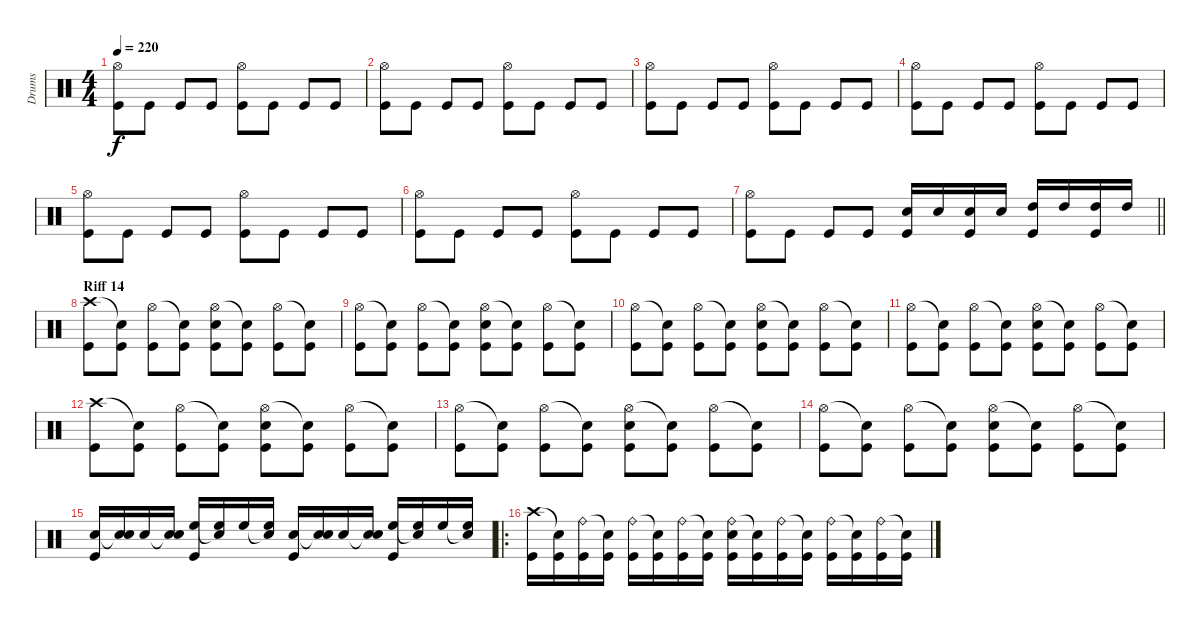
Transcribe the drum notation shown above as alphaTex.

\track ("Drums" "Drums") {instrument percussion}
\staff {score}
\articulation defaults
\ts (4 4)
\tempo 220
\clef neutral
\ks c
("Hi-Hat (open)" "Kick (hit)").8{dy f} "Kick (hit)".8 "Kick (hit)".8 "Kick (hit)".8 ("Hi-Hat (open)" "Kick (hit)").8 "Kick (hit)".8 "Kick (hit)".8 "Kick (hit)".8 |
("Hi-Hat (open)" "Kick (hit)").8 "Kick (hit)".8 "Kick (hit)".8 "Kick (hit)".8 ("Hi-Hat (open)" "Kick (hit)").8 "Kick (hit)".8 "Kick (hit)".8 "Kick (hit)".8 |
("Hi-Hat (open)" "Kick (hit)").8 "Kick (hit)".8 "Kick (hit)".8 "Kick (hit)".8 ("Hi-Hat (open)" "Kick (hit)").8 "Kick (hit)".8 "Kick (hit)".8 "Kick (hit)".8 |
("Hi-Hat (open)" "Kick (hit)").8 "Kick (hit)".8 "Kick (hit)".8 "Kick (hit)".8 ("Hi-Hat (open)" "Kick (hit)").8 "Kick (hit)".8 "Kick (hit)".8 "Kick (hit)".8 |
("Hi-Hat (open)" "Kick (hit)").8 "Kick (hit)".8 "Kick (hit)".8 "Kick (hit)".8 ("Hi-Hat (open)" "Kick (hit)").8 "Kick (hit)".8 "Kick (hit)".8 "Kick (hit)".8 |
("Hi-Hat (open)" "Kick (hit)").8 "Kick (hit)".8 "Kick (hit)".8 "Kick (hit)".8 ("Hi-Hat (open)" "Kick (hit)").8 "Kick (hit)".8 "Kick (hit)".8 "Kick (hit)".8 |
\barLineRight lightlight
("Hi-Hat (open)" "Kick (hit)").8 "Kick (hit)".8 "Kick (hit)".8 "Kick (hit)".8 ("Electric Snare (hit)" "Kick (hit)").16 "Electric Snare (hit)".16 ("Electric Snare (hit)" "Kick (hit)").16 "Electric Snare (hit)".16 ("High Tom (hit)" "Kick (hit)").16 "High Tom (hit)".16 ("High Tom (hit)" "Kick (hit)").16 "High Tom (hit)".16 |
\section ("" "Riff 14 ")
("Crash high (hit)" "Kick (hit)").8 ("Snare (hit)"{t} "Kick (hit)").8 ("Hi-Hat (open)" "Kick (hit)").8 ("Snare (hit)"{t} "Kick (hit)").8 ("Hi-Hat (open)" "Electric Snare (hit)" "Kick (hit)").8 ("Snare (hit)"{t} "Kick (hit)").8 ("Hi-Hat (open)" "Kick (hit)").8 ("Snare (hit)"{t} "Kick (hit)").8 |
("Hi-Hat (open)" "Kick (hit)").8 ("Snare (hit)"{t} "Kick (hit)").8 ("Hi-Hat (open)" "Kick (hit)").8 ("Snare (hit)"{t} "Kick (hit)").8 ("Hi-Hat (open)" "Electric Snare (hit)" "Kick (hit)").8 ("Snare (hit)"{t} "Kick (hit)").8 ("Hi-Hat (open)" "Kick (hit)").8 ("Snare (hit)"{t} "Kick (hit)").8 |
("Hi-Hat (open)" "Kick (hit)").8 ("Snare (hit)"{t} "Kick (hit)").8 ("Hi-Hat (open)" "Kick (hit)").8 ("Snare (hit)"{t} "Kick (hit)").8 ("Hi-Hat (open)" "Electric Snare (hit)" "Kick (hit)").8 ("Snare (hit)"{t} "Kick (hit)").8 ("Hi-Hat (open)" "Kick (hit)").8 ("Snare (hit)"{t} "Kick (hit)").8 |
("Hi-Hat (open)" "Kick (hit)").8 ("Snare (hit)"{t} "Kick (hit)").8 ("Hi-Hat (open)" "Kick (hit)").8 ("Snare (hit)"{t} "Kick (hit)").8 ("Hi-Hat (open)" "Electric Snare (hit)" "Kick (hit)").8 ("Snare (hit)"{t} "Kick (hit)").8 ("Hi-Hat (open)" "Kick (hit)").8 ("Snare (hit)"{t} "Kick (hit)").8 |
("Crash high (hit)" "Kick (hit)").8 ("Snare (hit)"{t} "Kick (hit)").8 ("Hi-Hat (open)" "Kick (hit)").8 ("Snare (hit)"{t} "Kick (hit)").8 ("Hi-Hat (open)" "Electric Snare (hit)" "Kick (hit)").8 ("Snare (hit)"{t} "Kick (hit)").8 ("Hi-Hat (open)" "Kick (hit)").8 ("Snare (hit)"{t} "Kick (hit)").8 |
("Hi-Hat (open)" "Kick (hit)").8 ("Snare (hit)"{t} "Kick (hit)").8 ("Hi-Hat (open)" "Kick (hit)").8 ("Snare (hit)"{t} "Kick (hit)").8 ("Hi-Hat (open)" "Electric Snare (hit)" "Kick (hit)").8 ("Snare (hit)"{t} "Kick (hit)").8 ("Hi-Hat (open)" "Kick (hit)").8 ("Snare (hit)"{t} "Kick (hit)").8 |
("Hi-Hat (open)" "Kick (hit)").8 ("Snare (hit)"{t} "Kick (hit)").8 ("Hi-Hat (open)" "Kick (hit)").8 ("Snare (hit)"{t} "Kick (hit)").8 ("Hi-Hat (open)" "Electric Snare (hit)" "Kick (hit)").8 ("Snare (hit)"{t} "Kick (hit)").8 ("Hi-Hat (open)" "Kick (hit)").8 ("Snare (hit)"{t} "Kick (hit)").8 |
("Electric Snare (hit)" "Kick (hit)").16 ("Snare (hit)"{t} "Electric Snare (hit)").16 "Electric Snare (hit)".16 ("Snare (hit)"{t} "Electric Snare (hit)").16 ("High Floor Tom (hit)" "Kick (hit)").16 ("Snare (hit)"{t} "High Floor Tom (hit)").16 "High Floor Tom (hit)".16 ("Snare (hit)"{t} "High Floor Tom (hit)").16 ("Electric Snare (hit)" "Kick (hit)").16 ("Snare (hit)"{t} "Electric Snare (hit)").16 "Electric Snare (hit)".16 ("Snare (hit)"{t} "Electric Snare (hit)").16 ("High Floor Tom (hit)" "Kick (hit)").16 ("Snare (hit)"{t} "High Floor Tom (hit)").16 "High Floor Tom (hit)".16 ("Snare (hit)"{t} "High Floor Tom (hit)").16 |
\ro
("Crash high (hit)" "Kick (hit)").16 ("Snare (hit)"{t} "Kick (hit)").16 ("Ride (bell)" "Kick (hit)").16 ("Snare (hit)"{t} "Kick (hit)").16 ("Ride (bell)" "Kick (hit)").16 ("Snare (hit)"{t} "Kick (hit)").16 ("Ride (bell)" "Kick (hit)").16 ("Snare (hit)"{t} "Kick (hit)").16 ("Ride (bell)" "Electric Snare (hit)" "Kick (hit)").16 ("Snare (hit)"{t} "Kick (hit)").16 ("Ride (bell)" "Kick (hit)").16 ("Snare (hit)"{t} "Kick (hit)").16 ("Ride (bell)" "Kick (hit)").16 ("Snare (hit)"{t} "Kick (hit)").16 ("Ride (bell)" "Kick (hit)").16 ("Snare (hit)"{t} "Kick (hit)").16
